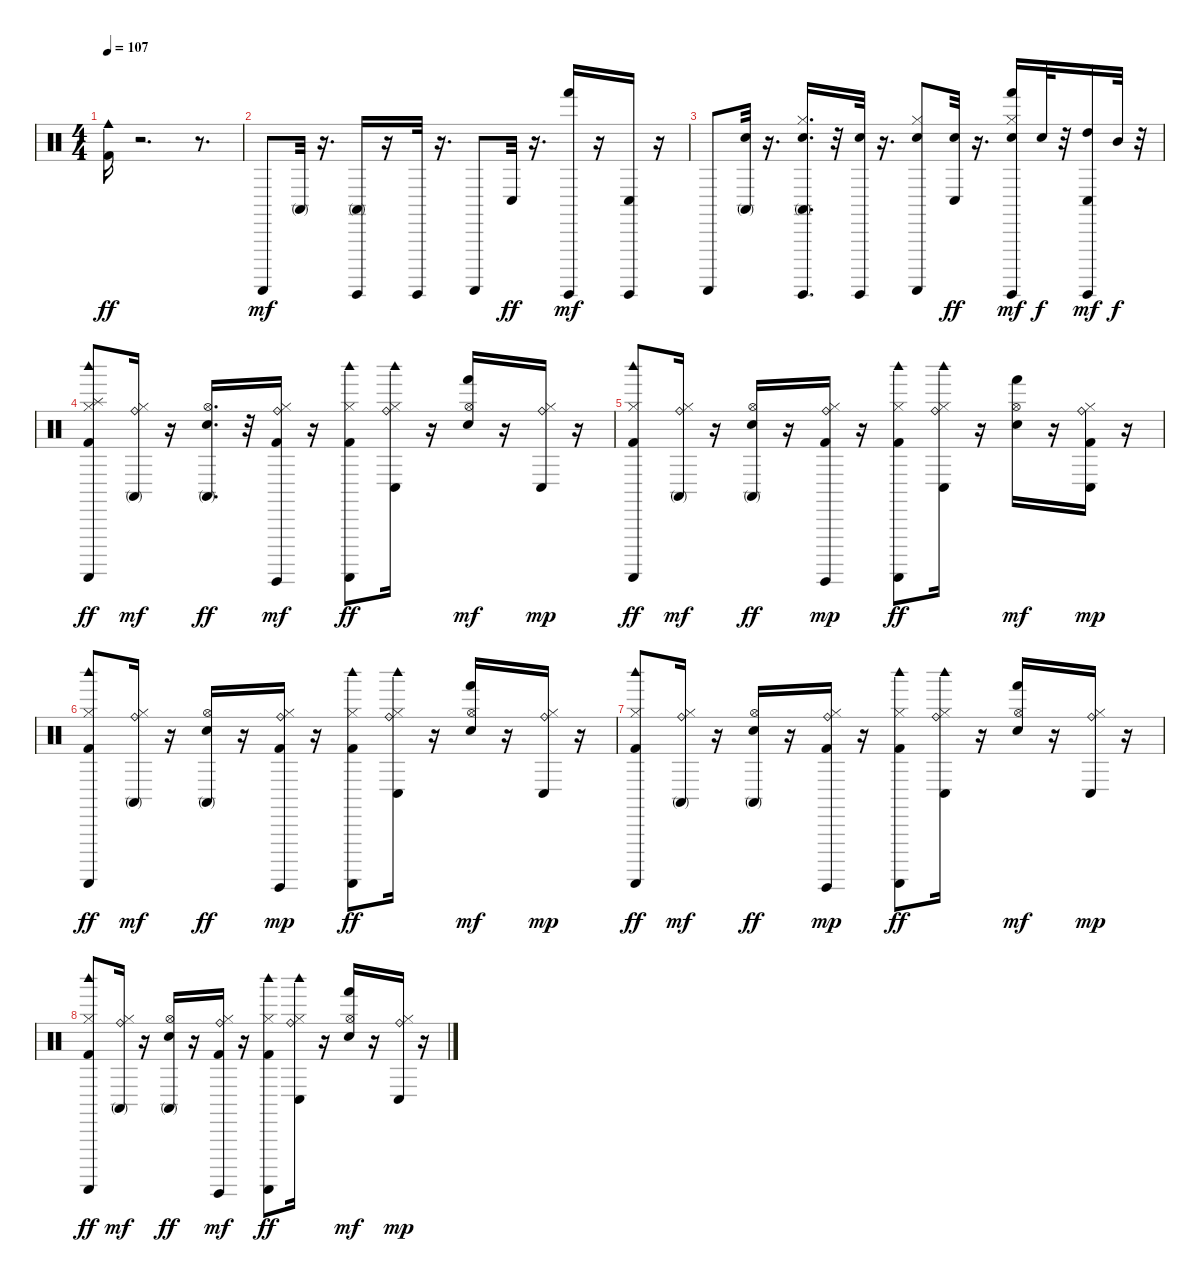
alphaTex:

\track "" {instrument percussion}
\staff {score}
\articulation defaults
\ts (4 4)
\tempo 107
\clef neutral
\ks c
("Kick (hit) 2" "Cowbell medium (hit)").16{dy ff} r.2{d} r.8{d} |
"Guiro (scrap-return)".8{dy mf} "Conga high (mute)".32 r.16{d} ("Conga high (mute)" "Guiro (hit)").16 r.16 "Guiro (hit)".32 r.16{d} "Guiro (scrap-return)".8 "Conga low (hit)".32{dy ff} r.16{d} ("Hand (hit)" "Guiro (hit)").16{dy mf} r.16 ("Conga low (hit)" "Guiro (hit)").16 r.16 |
"Guiro (scrap-return)".8 ("Electric Snare (hit)" "Conga high (mute)").32 r.16{d} ("Electric Snare (hit)" "Hi-Hat (closed)" "Conga high (mute)" "Guiro (hit)").16{d} r.32 ("Electric Snare (hit)" "Guiro (hit)").32 r.16{d} ("Electric Snare (hit)" "Hi-Hat (closed)" "Guiro (scrap-return)").8 ("Electric Snare (hit)" "Conga low (hit)").32{dy ff} r.16{d} ("Electric Snare (hit)" "Hi-Hat (closed)" "Hand (hit)" "Guiro (hit)").16{dy mf} "Electric Snare (hit)".32{dy f} r.32 ("High Tom (hit)" "Conga low (hit)" "Guiro (hit)").16{dy mf} "Mid Tom (hit)".32{dy f} r.32 |
("Kick (hit) 2" "Hi-Hat (closed)" "Splash (hit)" "Guiro (scrap-return)" "Woodblock high (hit)").8{dy ff} ("Hi-Hat (closed)" "Ride (bell)" "Conga high (mute)").16{dy mf} r.16 ("Electric Snare (hit)" "Conga high (mute)" "Hi-Hat (open)").16{d dy ff} r.32 ("Kick (hit) 2" "Ride (bell)" "Guiro (hit)" "Hi-Hat (closed)").16{dy mf} r.16 ("Kick (hit) 2" "Hi-Hat (closed)" "Guiro (scrap-return)" "Woodblock high (hit)").8{dy ff} ("Hi-Hat (closed)" "Ride (bell)" "Conga low (hit)" "Woodblock high (hit)").16 r.16 ("Electric Snare (hit)" "Hi-Hat (open)" "Hand (hit)").16{dy mf} r.16 ("Ride (bell)" "Conga low (hit)" "Hi-Hat (closed)").16{dy mp} r.16 |
("Kick (hit) 2" "Hi-Hat (closed)" "Guiro (scrap-return)" "Woodblock high (hit)").8{dy ff} ("Hi-Hat (closed)" "Ride (bell)" "Conga high (mute)").16{dy mf} r.16 ("Electric Snare (hit)" "Hi-Hat (open)" "Conga high (mute)").16{dy ff} r.16 ("Kick (hit) 2" "Hi-Hat (closed)" "Ride (bell)" "Guiro (hit)").16{dy mp} r.16 ("Kick (hit) 2" "Hi-Hat (closed)" "Guiro (scrap-return)" "Woodblock high (hit)").8{dy ff} ("Hi-Hat (closed)" "Ride (bell)" "Conga low (hit)" "Woodblock high (hit)").16 r.16 ("Electric Snare (hit)" "Hi-Hat (open)" "Hand (hit)").16{dy mf} r.16 ("Kick (hit) 2" "Hi-Hat (closed)" "Ride (bell)" "Conga low (hit)").16{dy mp} r.16 |
("Kick (hit) 2" "Hi-Hat (closed)" "Guiro (scrap-return)" "Woodblock high (hit)").8{dy ff} ("Hi-Hat (closed)" "Ride (bell)" "Conga high (mute)").16{dy mf} r.16 ("Electric Snare (hit)" "Conga high (mute)" "Hi-Hat (open)").16{dy ff} r.16 ("Kick (hit) 2" "Hi-Hat (closed)" "Ride (bell)" "Guiro (hit)").16{dy mp} r.16 ("Kick (hit) 2" "Hi-Hat (closed)" "Guiro (scrap-return)" "Woodblock high (hit)").8{dy ff} ("Ride (bell)" "Woodblock high (hit)" "Hi-Hat (closed)" "Conga low (hit)").16 r.16 ("Electric Snare (hit)" "Hi-Hat (open)" "Hand (hit)").16{dy mf} r.16 ("Hi-Hat (closed)" "Ride (bell)" "Conga low (hit)").16{dy mp} r.16 |
("Kick (hit) 2" "Hi-Hat (closed)" "Guiro (scrap-return)" "Woodblock high (hit)").8{dy ff} ("Hi-Hat (closed)" "Ride (bell)" "Conga high (mute)").16{dy mf} r.16 ("Electric Snare (hit)" "Conga high (mute)" "Hi-Hat (open)").16{dy ff} r.16 ("Kick (hit) 2" "Hi-Hat (closed)" "Ride (bell)" "Guiro (hit)").16{dy mp} r.16 ("Kick (hit) 2" "Hi-Hat (closed)" "Guiro (scrap-return)" "Woodblock high (hit)").8{dy ff} ("Hi-Hat (closed)" "Ride (bell)" "Conga low (hit)" "Woodblock high (hit)").16 r.16 ("Electric Snare (hit)" "Hi-Hat (open)" "Hand (hit)").16{dy mf} r.16 ("Hi-Hat (closed)" "Ride (bell)" "Conga low (hit)").16{dy mp} r.16 |
("Kick (hit) 2" "Hi-Hat (closed)" "Guiro (scrap-return)" "Woodblock high (hit)").8{dy ff} ("Hi-Hat (closed)" "Ride (bell)" "Conga high (mute)").16{dy mf} r.16 ("Electric Snare (hit)" "Hi-Hat (open)" "Conga high (mute)").16{dy ff} r.16 ("Kick (hit) 2" "Ride (bell)" "Guiro (hit)" "Hi-Hat (closed)").16{dy mf} r.16 ("Kick (hit) 2" "Hi-Hat (closed)" "Guiro (scrap-return)" "Woodblock high (hit)").8{dy ff} ("Woodblock high (hit)" "Hi-Hat (closed)" "Ride (bell)" "Conga low (hit)").16 r.16 ("Electric Snare (hit)" "Hi-Hat (open)" "Hand (hit)").16{dy mf} r.16 ("Ride (bell)" "Conga low (hit)" "Hi-Hat (closed)").16{dy mp} r.16
